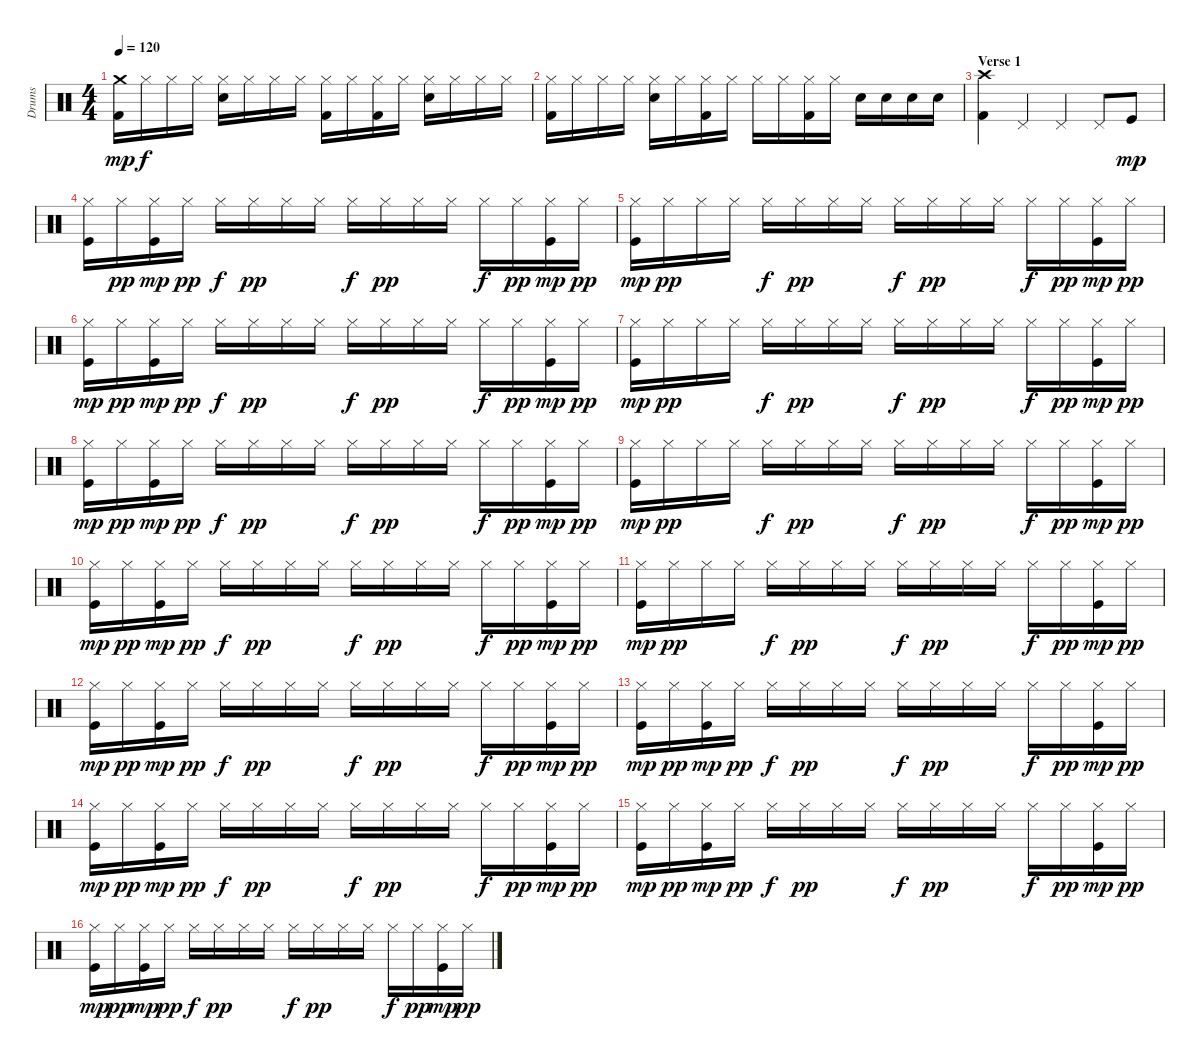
\track ("Drums" "Drums") {instrument percussion}
\staff {score}
\articulation defaults
\ts (4 4)
\tempo 120
\clef neutral
\ks c
("Crash medium (hit)" "Kick (hit) 2").16{dy mp} "Hi-Hat (closed)".16{dy f} "Hi-Hat (closed)".16 "Hi-Hat (closed)".16 ("Hi-Hat (closed)" "Electric Snare (hit)").16 "Hi-Hat (closed)".16 "Hi-Hat (closed)".16 "Hi-Hat (closed)".16 ("Hi-Hat (closed)" "Kick (hit) 2").16 "Hi-Hat (closed)".16 ("Hi-Hat (closed)" "Kick (hit) 2").16 "Hi-Hat (closed)".16 ("Hi-Hat (closed)" "Electric Snare (hit)").16 "Hi-Hat (closed)".16 "Hi-Hat (closed)".16 "Hi-Hat (closed)".16 |
("Hi-Hat (closed)" "Kick (hit) 2").16 "Hi-Hat (closed)".16 "Hi-Hat (closed)".16 "Hi-Hat (closed)".16 ("Hi-Hat (closed)" "Electric Snare (hit)").16 "Hi-Hat (closed)".16 ("Hi-Hat (closed)" "Kick (hit) 2").16 "Hi-Hat (closed)".16 "Hi-Hat (closed)".16 "Hi-Hat (closed)".16 ("Hi-Hat (closed)" "Kick (hit) 2").16 "Hi-Hat (closed)".16 "Electric Snare (hit)".16 "Electric Snare (hit)".16 "Electric Snare (hit)".16 "Electric Snare (hit)".16 |
\section ("" "Verse 1")
("Crash high (hit)" "Kick (hit) 2").4 "Pedal Hi-Hat (hit)".4 "Pedal Hi-Hat (hit)".4 "Pedal Hi-Hat (hit)".8 "Kick (hit)".8{dy mp} |
("Hi-Hat (closed)" "Kick (hit)").16 "Hi-Hat (closed)".16{dy pp} ("Hi-Hat (closed)" "Kick (hit)").16{dy mp} "Hi-Hat (closed)".16{dy pp} "Hi-Hat (closed)".16{dy f} "Hi-Hat (closed)".16{dy pp} "Hi-Hat (closed)".16 "Hi-Hat (closed)".16 "Hi-Hat (closed)".16{dy f} "Hi-Hat (closed)".16{dy pp} "Hi-Hat (closed)".16 "Hi-Hat (closed)".16 "Hi-Hat (closed)".16{dy f} "Hi-Hat (closed)".16{dy pp} ("Hi-Hat (closed)" "Kick (hit)").16{dy mp} "Hi-Hat (closed)".16{dy pp} |
("Hi-Hat (closed)" "Kick (hit)").16{dy mp} "Hi-Hat (closed)".16{dy pp} "Hi-Hat (closed)".16 "Hi-Hat (closed)".16 "Hi-Hat (closed)".16{dy f} "Hi-Hat (closed)".16{dy pp} "Hi-Hat (closed)".16 "Hi-Hat (closed)".16 "Hi-Hat (closed)".16{dy f} "Hi-Hat (closed)".16{dy pp} "Hi-Hat (closed)".16 "Hi-Hat (closed)".16 "Hi-Hat (closed)".16{dy f} "Hi-Hat (closed)".16{dy pp} ("Hi-Hat (closed)" "Kick (hit)").16{dy mp} "Hi-Hat (closed)".16{dy pp} |
("Hi-Hat (closed)" "Kick (hit)").16{dy mp} "Hi-Hat (closed)".16{dy pp} ("Hi-Hat (closed)" "Kick (hit)").16{dy mp} "Hi-Hat (closed)".16{dy pp} "Hi-Hat (closed)".16{dy f} "Hi-Hat (closed)".16{dy pp} "Hi-Hat (closed)".16 "Hi-Hat (closed)".16 "Hi-Hat (closed)".16{dy f} "Hi-Hat (closed)".16{dy pp} "Hi-Hat (closed)".16 "Hi-Hat (closed)".16 "Hi-Hat (closed)".16{dy f} "Hi-Hat (closed)".16{dy pp} ("Hi-Hat (closed)" "Kick (hit)").16{dy mp} "Hi-Hat (closed)".16{dy pp} |
("Hi-Hat (closed)" "Kick (hit)").16{dy mp} "Hi-Hat (closed)".16{dy pp} "Hi-Hat (closed)".16 "Hi-Hat (closed)".16 "Hi-Hat (closed)".16{dy f} "Hi-Hat (closed)".16{dy pp} "Hi-Hat (closed)".16 "Hi-Hat (closed)".16 "Hi-Hat (closed)".16{dy f} "Hi-Hat (closed)".16{dy pp} "Hi-Hat (closed)".16 "Hi-Hat (closed)".16 "Hi-Hat (closed)".16{dy f} "Hi-Hat (closed)".16{dy pp} ("Hi-Hat (closed)" "Kick (hit)").16{dy mp} "Hi-Hat (closed)".16{dy pp} |
("Hi-Hat (closed)" "Kick (hit)").16{dy mp} "Hi-Hat (closed)".16{dy pp} ("Hi-Hat (closed)" "Kick (hit)").16{dy mp} "Hi-Hat (closed)".16{dy pp} "Hi-Hat (closed)".16{dy f} "Hi-Hat (closed)".16{dy pp} "Hi-Hat (closed)".16 "Hi-Hat (closed)".16 "Hi-Hat (closed)".16{dy f} "Hi-Hat (closed)".16{dy pp} "Hi-Hat (closed)".16 "Hi-Hat (closed)".16 "Hi-Hat (closed)".16{dy f} "Hi-Hat (closed)".16{dy pp} ("Hi-Hat (closed)" "Kick (hit)").16{dy mp} "Hi-Hat (closed)".16{dy pp} |
("Hi-Hat (closed)" "Kick (hit)").16{dy mp} "Hi-Hat (closed)".16{dy pp} "Hi-Hat (closed)".16 "Hi-Hat (closed)".16 "Hi-Hat (closed)".16{dy f} "Hi-Hat (closed)".16{dy pp} "Hi-Hat (closed)".16 "Hi-Hat (closed)".16 "Hi-Hat (closed)".16{dy f} "Hi-Hat (closed)".16{dy pp} "Hi-Hat (closed)".16 "Hi-Hat (closed)".16 "Hi-Hat (closed)".16{dy f} "Hi-Hat (closed)".16{dy pp} ("Hi-Hat (closed)" "Kick (hit)").16{dy mp} "Hi-Hat (closed)".16{dy pp} |
("Hi-Hat (closed)" "Kick (hit)").16{dy mp} "Hi-Hat (closed)".16{dy pp} ("Hi-Hat (closed)" "Kick (hit)").16{dy mp} "Hi-Hat (closed)".16{dy pp} "Hi-Hat (closed)".16{dy f} "Hi-Hat (closed)".16{dy pp} "Hi-Hat (closed)".16 "Hi-Hat (closed)".16 "Hi-Hat (closed)".16{dy f} "Hi-Hat (closed)".16{dy pp} "Hi-Hat (closed)".16 "Hi-Hat (closed)".16 "Hi-Hat (closed)".16{dy f} "Hi-Hat (closed)".16{dy pp} ("Hi-Hat (closed)" "Kick (hit)").16{dy mp} "Hi-Hat (closed)".16{dy pp} |
("Hi-Hat (closed)" "Kick (hit)").16{dy mp} "Hi-Hat (closed)".16{dy pp} "Hi-Hat (closed)".16 "Hi-Hat (closed)".16 "Hi-Hat (closed)".16{dy f} "Hi-Hat (closed)".16{dy pp} "Hi-Hat (closed)".16 "Hi-Hat (closed)".16 "Hi-Hat (closed)".16{dy f} "Hi-Hat (closed)".16{dy pp} "Hi-Hat (closed)".16 "Hi-Hat (closed)".16 "Hi-Hat (closed)".16{dy f} "Hi-Hat (closed)".16{dy pp} ("Hi-Hat (closed)" "Kick (hit)").16{dy mp} "Hi-Hat (closed)".16{dy pp} |
("Hi-Hat (closed)" "Kick (hit)").16{dy mp} "Hi-Hat (closed)".16{dy pp} ("Hi-Hat (closed)" "Kick (hit)").16{dy mp} "Hi-Hat (closed)".16{dy pp} "Hi-Hat (closed)".16{dy f} "Hi-Hat (closed)".16{dy pp} "Hi-Hat (closed)".16 "Hi-Hat (closed)".16 "Hi-Hat (closed)".16{dy f} "Hi-Hat (closed)".16{dy pp} "Hi-Hat (closed)".16 "Hi-Hat (closed)".16 "Hi-Hat (closed)".16{dy f} "Hi-Hat (closed)".16{dy pp} ("Hi-Hat (closed)" "Kick (hit)").16{dy mp} "Hi-Hat (closed)".16{dy pp} |
("Hi-Hat (closed)" "Kick (hit)").16{dy mp} "Hi-Hat (closed)".16{dy pp} ("Hi-Hat (closed)" "Kick (hit)").16{dy mp} "Hi-Hat (closed)".16{dy pp} "Hi-Hat (closed)".16{dy f} "Hi-Hat (closed)".16{dy pp} "Hi-Hat (closed)".16 "Hi-Hat (closed)".16 "Hi-Hat (closed)".16{dy f} "Hi-Hat (closed)".16{dy pp} "Hi-Hat (closed)".16 "Hi-Hat (closed)".16 "Hi-Hat (closed)".16{dy f} "Hi-Hat (closed)".16{dy pp} ("Hi-Hat (closed)" "Kick (hit)").16{dy mp} "Hi-Hat (closed)".16{dy pp} |
("Hi-Hat (closed)" "Kick (hit)").16{dy mp} "Hi-Hat (closed)".16{dy pp} ("Hi-Hat (closed)" "Kick (hit)").16{dy mp} "Hi-Hat (closed)".16{dy pp} "Hi-Hat (closed)".16{dy f} "Hi-Hat (closed)".16{dy pp} "Hi-Hat (closed)".16 "Hi-Hat (closed)".16 "Hi-Hat (closed)".16{dy f} "Hi-Hat (closed)".16{dy pp} "Hi-Hat (closed)".16 "Hi-Hat (closed)".16 "Hi-Hat (closed)".16{dy f} "Hi-Hat (closed)".16{dy pp} ("Hi-Hat (closed)" "Kick (hit)").16{dy mp} "Hi-Hat (closed)".16{dy pp} |
("Hi-Hat (closed)" "Kick (hit)").16{dy mp} "Hi-Hat (closed)".16{dy pp} ("Hi-Hat (closed)" "Kick (hit)").16{dy mp} "Hi-Hat (closed)".16{dy pp} "Hi-Hat (closed)".16{dy f} "Hi-Hat (closed)".16{dy pp} "Hi-Hat (closed)".16 "Hi-Hat (closed)".16 "Hi-Hat (closed)".16{dy f} "Hi-Hat (closed)".16{dy pp} "Hi-Hat (closed)".16 "Hi-Hat (closed)".16 "Hi-Hat (closed)".16{dy f} "Hi-Hat (closed)".16{dy pp} ("Hi-Hat (closed)" "Kick (hit)").16{dy mp} "Hi-Hat (closed)".16{dy pp} |
("Hi-Hat (closed)" "Kick (hit)").16{dy mp} "Hi-Hat (closed)".16{dy pp} ("Hi-Hat (closed)" "Kick (hit)").16{dy mp} "Hi-Hat (closed)".16{dy pp} "Hi-Hat (closed)".16{dy f} "Hi-Hat (closed)".16{dy pp} "Hi-Hat (closed)".16 "Hi-Hat (closed)".16 "Hi-Hat (closed)".16{dy f} "Hi-Hat (closed)".16{dy pp} "Hi-Hat (closed)".16 "Hi-Hat (closed)".16 "Hi-Hat (closed)".16{dy f} "Hi-Hat (closed)".16{dy pp} ("Hi-Hat (closed)" "Kick (hit)").16{dy mp} "Hi-Hat (closed)".16{dy pp}
